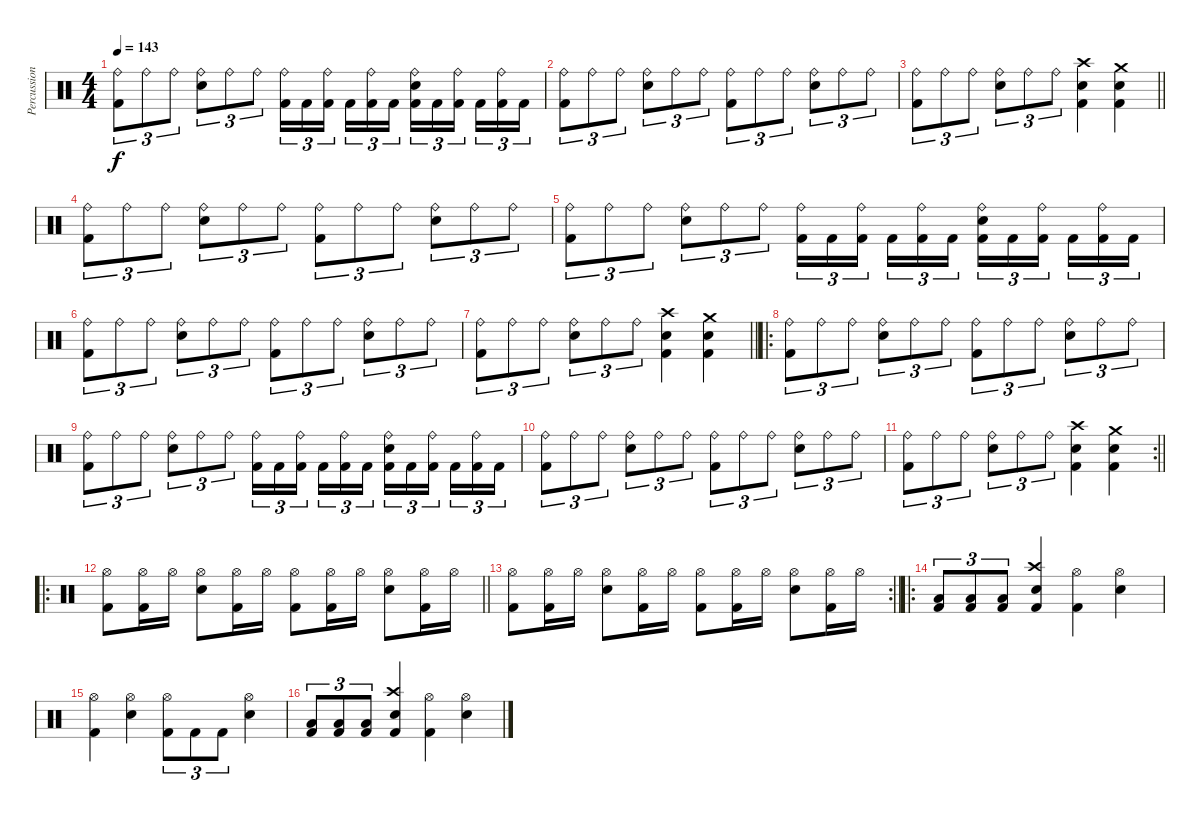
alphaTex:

\track ("Percussion" "Percussion") {instrument percussion}
\staff {score}
\articulation defaults
\ts (4 4)
\tempo 143
\clef neutral
\ks c
("Ride (bell)" "Kick (hit) 2").8{tu (3 2) dy f} "Ride (bell)".8{tu (3 2)} "Ride (bell)".8{tu (3 2)} ("Ride (bell)" "Electric Snare (hit)").8{tu (3 2)} "Ride (bell)".8{tu (3 2)} "Ride (bell)".8{tu (3 2)} ("Ride (bell)" "Kick (hit) 2").16{tu (3 2)} "Kick (hit) 2".16{tu (3 2)} ("Ride (bell)" "Kick (hit) 2").16{tu (3 2) beam splitsecondary} "Kick (hit) 2".16{tu (3 2)} ("Ride (bell)" "Kick (hit) 2").16{tu (3 2)} "Kick (hit) 2".16{tu (3 2)} ("Ride (bell)" "Electric Snare (hit)" "Kick (hit) 2").16{tu (3 2)} "Kick (hit) 2".16{tu (3 2)} ("Ride (bell)" "Kick (hit) 2").16{tu (3 2) beam splitsecondary} "Kick (hit) 2".16{tu (3 2)} ("Ride (bell)" "Kick (hit) 2").16{tu (3 2)} "Kick (hit) 2".16{tu (3 2)} |
("Ride (bell)" "Kick (hit) 2").8{tu (3 2)} "Ride (bell)".8{tu (3 2)} "Ride (bell)".8{tu (3 2)} ("Ride (bell)" "Electric Snare (hit)").8{tu (3 2)} "Ride (bell)".8{tu (3 2)} "Ride (bell)".8{tu (3 2)} ("Ride (bell)" "Kick (hit) 2").8{tu (3 2)} "Ride (bell)".8{tu (3 2)} "Ride (bell)".8{tu (3 2)} ("Ride (bell)" "Electric Snare (hit)").8{tu (3 2)} "Ride (bell)".8{tu (3 2)} "Ride (bell)".8{tu (3 2)} |
\barLineRight lightlight
("Ride (bell)" "Kick (hit) 2").8{tu (3 2)} "Ride (bell)".8{tu (3 2)} "Ride (bell)".8{tu (3 2)} ("Ride (bell)" "Electric Snare (hit)").8{tu (3 2)} "Ride (bell)".8{tu (3 2)} "Ride (bell)".8{tu (3 2)} ("Crash high (hit)" "Electric Snare (hit)" "Kick (hit) 2").4 ("Crash medium (hit)" "Electric Snare (hit)" "Kick (hit) 2").4 |
("Ride (bell)" "Kick (hit) 2").8{tu (3 2)} "Ride (bell)".8{tu (3 2)} "Ride (bell)".8{tu (3 2)} ("Ride (bell)" "Electric Snare (hit)").8{tu (3 2)} "Ride (bell)".8{tu (3 2)} "Ride (bell)".8{tu (3 2)} ("Ride (bell)" "Kick (hit) 2").8{tu (3 2)} "Ride (bell)".8{tu (3 2)} "Ride (bell)".8{tu (3 2)} ("Ride (bell)" "Electric Snare (hit)").8{tu (3 2)} "Ride (bell)".8{tu (3 2)} "Ride (bell)".8{tu (3 2)} |
("Ride (bell)" "Kick (hit) 2").8{tu (3 2)} "Ride (bell)".8{tu (3 2)} "Ride (bell)".8{tu (3 2)} ("Ride (bell)" "Electric Snare (hit)").8{tu (3 2)} "Ride (bell)".8{tu (3 2)} "Ride (bell)".8{tu (3 2)} ("Ride (bell)" "Kick (hit) 2").16{tu (3 2)} "Kick (hit) 2".16{tu (3 2)} ("Ride (bell)" "Kick (hit) 2").16{tu (3 2) beam splitsecondary} "Kick (hit) 2".16{tu (3 2)} ("Ride (bell)" "Kick (hit) 2").16{tu (3 2)} "Kick (hit) 2".16{tu (3 2)} ("Ride (bell)" "Electric Snare (hit)" "Kick (hit) 2").16{tu (3 2)} "Kick (hit) 2".16{tu (3 2)} ("Ride (bell)" "Kick (hit) 2").16{tu (3 2) beam splitsecondary} "Kick (hit) 2".16{tu (3 2)} ("Ride (bell)" "Kick (hit) 2").16{tu (3 2)} "Kick (hit) 2".16{tu (3 2)} |
("Ride (bell)" "Kick (hit) 2").8{tu (3 2)} "Ride (bell)".8{tu (3 2)} "Ride (bell)".8{tu (3 2)} ("Ride (bell)" "Electric Snare (hit)").8{tu (3 2)} "Ride (bell)".8{tu (3 2)} "Ride (bell)".8{tu (3 2)} ("Ride (bell)" "Kick (hit) 2").8{tu (3 2)} "Ride (bell)".8{tu (3 2)} "Ride (bell)".8{tu (3 2)} ("Ride (bell)" "Electric Snare (hit)").8{tu (3 2)} "Ride (bell)".8{tu (3 2)} "Ride (bell)".8{tu (3 2)} |
\barLineRight lightlight
("Ride (bell)" "Kick (hit) 2").8{tu (3 2)} "Ride (bell)".8{tu (3 2)} "Ride (bell)".8{tu (3 2)} ("Ride (bell)" "Electric Snare (hit)").8{tu (3 2)} "Ride (bell)".8{tu (3 2)} "Ride (bell)".8{tu (3 2)} ("Crash high (hit)" "Electric Snare (hit)" "Kick (hit) 2").4 ("Crash medium (hit)" "Electric Snare (hit)" "Kick (hit) 2").4 |
\ro
\section ("" "")
("Ride (bell)" "Kick (hit) 2").8{tu (3 2)} "Ride (bell)".8{tu (3 2)} "Ride (bell)".8{tu (3 2)} ("Ride (bell)" "Electric Snare (hit)").8{tu (3 2)} "Ride (bell)".8{tu (3 2)} "Ride (bell)".8{tu (3 2)} ("Ride (bell)" "Kick (hit) 2").8{tu (3 2)} "Ride (bell)".8{tu (3 2)} "Ride (bell)".8{tu (3 2)} ("Ride (bell)" "Electric Snare (hit)").8{tu (3 2)} "Ride (bell)".8{tu (3 2)} "Ride (bell)".8{tu (3 2)} |
("Ride (bell)" "Kick (hit) 2").8{tu (3 2)} "Ride (bell)".8{tu (3 2)} "Ride (bell)".8{tu (3 2)} ("Ride (bell)" "Electric Snare (hit)").8{tu (3 2)} "Ride (bell)".8{tu (3 2)} "Ride (bell)".8{tu (3 2)} ("Ride (bell)" "Kick (hit) 2").16{tu (3 2)} "Kick (hit) 2".16{tu (3 2)} ("Ride (bell)" "Kick (hit) 2").16{tu (3 2) beam splitsecondary} "Kick (hit) 2".16{tu (3 2)} ("Ride (bell)" "Kick (hit) 2").16{tu (3 2)} "Kick (hit) 2".16{tu (3 2)} ("Ride (bell)" "Electric Snare (hit)" "Kick (hit) 2").16{tu (3 2)} "Kick (hit) 2".16{tu (3 2)} ("Ride (bell)" "Kick (hit) 2").16{tu (3 2) beam splitsecondary} "Kick (hit) 2".16{tu (3 2)} ("Ride (bell)" "Kick (hit) 2").16{tu (3 2)} "Kick (hit) 2".16{tu (3 2)} |
("Ride (bell)" "Kick (hit) 2").8{tu (3 2)} "Ride (bell)".8{tu (3 2)} "Ride (bell)".8{tu (3 2)} ("Ride (bell)" "Electric Snare (hit)").8{tu (3 2)} "Ride (bell)".8{tu (3 2)} "Ride (bell)".8{tu (3 2)} ("Ride (bell)" "Kick (hit) 2").8{tu (3 2)} "Ride (bell)".8{tu (3 2)} "Ride (bell)".8{tu (3 2)} ("Ride (bell)" "Electric Snare (hit)").8{tu (3 2)} "Ride (bell)".8{tu (3 2)} "Ride (bell)".8{tu (3 2)} |
\rc 2
\barLineRight lightlight
("Ride (bell)" "Kick (hit) 2").8{tu (3 2)} "Ride (bell)".8{tu (3 2)} "Ride (bell)".8{tu (3 2)} ("Ride (bell)" "Electric Snare (hit)").8{tu (3 2)} "Ride (bell)".8{tu (3 2)} "Ride (bell)".8{tu (3 2)} ("Crash high (hit)" "Electric Snare (hit)" "Kick (hit) 2").4 ("Crash medium (hit)" "Electric Snare (hit)" "Kick (hit) 2").4 |
\ro
\section ("" "")
\barLineRight lightlight
("Hi-Hat (open)" "Kick (hit) 2").8 ("Hi-Hat (open)" "Kick (hit) 2").16 "Hi-Hat (open)".16 ("Hi-Hat (open)" "Snare (hit) 2").8 ("Hi-Hat (open)" "Kick (hit) 2").16 "Hi-Hat (open)".16 ("Hi-Hat (open)" "Kick (hit) 2").8 ("Hi-Hat (open)" "Kick (hit) 2").16 "Hi-Hat (open)".16 ("Hi-Hat (open)" "Snare (hit) 2").8 ("Hi-Hat (open)" "Kick (hit) 2").16 "Hi-Hat (open)".16 |
\rc 2
\barLineRight lightlight
("Hi-Hat (open)" "Kick (hit) 2").8 ("Hi-Hat (open)" "Kick (hit) 2").16 "Hi-Hat (open)".16 ("Hi-Hat (open)" "Snare (hit) 2").8 ("Hi-Hat (open)" "Kick (hit) 2").16 "Hi-Hat (open)".16 ("Hi-Hat (open)" "Kick (hit) 2").8 ("Hi-Hat (open)" "Kick (hit) 2").16 "Hi-Hat (open)".16 ("Hi-Hat (open)" "Snare (hit) 2").8 ("Hi-Hat (open)" "Kick (hit) 2").16 "Hi-Hat (open)".16 |
\ro
\section ("" "")
("Low Tom (hit)" "Kick (hit) 2").8{tu (3 2)} ("Low Tom (hit)" "Kick (hit) 2").8{tu (3 2)} ("Low Tom (hit)" "Kick (hit) 2").8{tu (3 2)} ("Crash high (hit)" "Snare (hit) 2" "Kick (hit) 2").4 ("Hi-Hat (open)" "Kick (hit) 2").4 ("Hi-Hat (open)" "Snare (hit) 2").4 |
("Hi-Hat (open)" "Kick (hit) 2").4 ("Hi-Hat (open)" "Snare (hit) 2").4 ("Hi-Hat (open)" "Kick (hit) 2").8{tu (3 2)} "Kick (hit) 2".8{tu (3 2)} "Kick (hit) 2".8{tu (3 2)} ("Hi-Hat (open)" "Snare (hit) 2").4 |
("Low Tom (hit)" "Kick (hit) 2").8{tu (3 2)} ("Low Tom (hit)" "Kick (hit) 2").8{tu (3 2)} ("Low Tom (hit)" "Kick (hit) 2").8{tu (3 2)} ("Crash high (hit)" "Snare (hit) 2" "Kick (hit) 2").4 ("Hi-Hat (open)" "Kick (hit) 2").4 ("Hi-Hat (open)" "Snare (hit) 2").4
